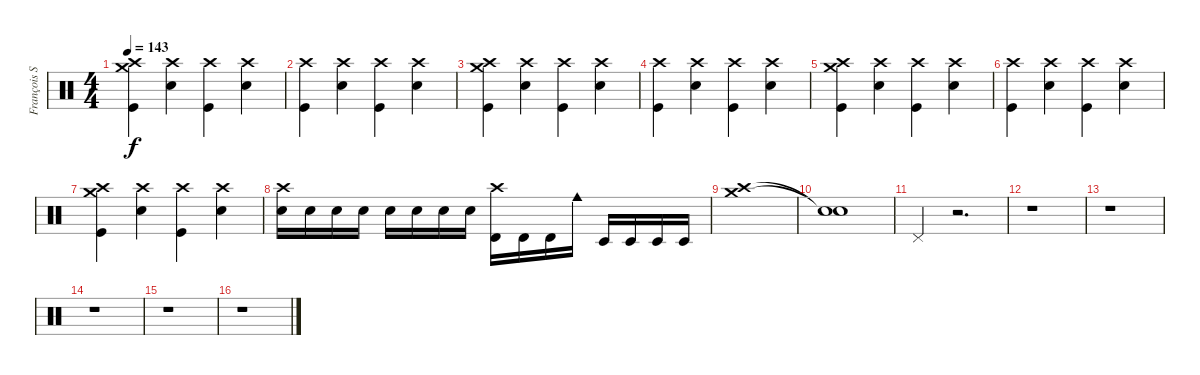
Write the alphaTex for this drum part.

\track ("François Soulier" "François S") {instrument percussion}
\staff {score}
\articulation defaults
\ts (4 4)
\tempo 143
\clef neutral
\ks c
("Crash high (hit)" "Crash medium (hit)" "Kick (hit)").4{dy f} ("Crash high (hit)" "Snare (hit) 2").4 ("Crash high (hit)" "Kick (hit)").4 ("Crash high (hit)" "Snare (hit) 2").4 |
("Crash high (hit)" "Kick (hit)").4 ("Crash high (hit)" "Snare (hit) 2").4 ("Crash high (hit)" "Kick (hit)").4 ("Crash high (hit)" "Snare (hit) 2").4 |
("Crash high (hit)" "Crash medium (hit)" "Kick (hit)").4 ("Crash high (hit)" "Snare (hit) 2").4 ("Crash high (hit)" "Kick (hit)").4 ("Crash high (hit)" "Snare (hit) 2").4 |
("Crash high (hit)" "Kick (hit)").4 ("Crash high (hit)" "Snare (hit) 2").4 ("Crash high (hit)" "Kick (hit)").4 ("Crash high (hit)" "Snare (hit) 2").4 |
("Crash high (hit)" "Crash medium (hit)" "Kick (hit)").4 ("Crash high (hit)" "Snare (hit) 2").4 ("Crash high (hit)" "Kick (hit)").4 ("Crash high (hit)" "Snare (hit) 2").4 |
("Crash high (hit)" "Kick (hit)").4 ("Crash high (hit)" "Snare (hit) 2").4 ("Crash high (hit)" "Kick (hit)").4 ("Crash high (hit)" "Snare (hit) 2").4 |
("Crash high (hit)" "Crash medium (hit)" "Kick (hit)").4 ("Crash high (hit)" "Snare (hit) 2").4 ("Crash high (hit)" "Kick (hit)").4 ("Crash high (hit)" "Snare (hit) 2").4 |
("Crash high (hit)" "Electric Snare (hit)").16 "Electric Snare (hit)".16 "Electric Snare (hit)".16 "Electric Snare (hit)".16 "Snare (hit) 2".16 "Snare (hit) 2".16 "Snare (hit) 2".16 "Snare (hit) 2".16 ("Crash high (hit)" "Timbale high (hit)").16 "Timbale high (hit)".16 "Timbale high (hit)".16 "Cowbell medium (hit)".16 "Timbale low (hit)".16 "Timbale low (hit)".16 "Timbale low (hit)".16 "Timbale low (hit)".16 |
("Crash medium (hit)" "Crash high (hit)").1 |
("Snare (hit)"{t} "Snare (hit)"{t}).1 |
"Pedal Hi-Hat (hit)".4 r.2{d} |
r.1 |
r.1 |
r.1 |
r.1 |
r.1
